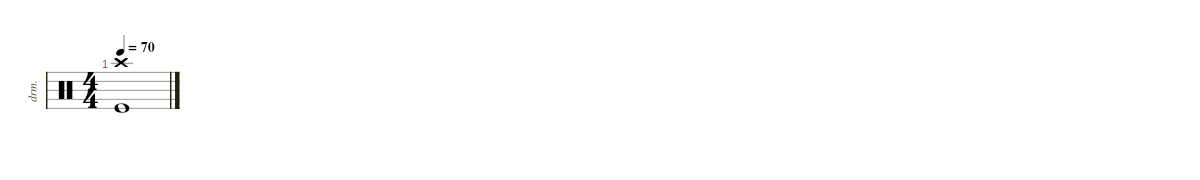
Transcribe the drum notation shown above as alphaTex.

\defaultSystemsLayout 4
\hideDynamics
\bracketExtendMode nobrackets
\otherSystemsTrackNameOrientation horizontal
\track ("Drums" "drm.") {defaultSystemsLayout 4 multiBarRest instrument percussion}
\staff {score}
\articulation defaults
\ts (4 4)
\tempo 70
\clef neutral
\ks c
("Kick (hit)" "Crash high (hit)").1{dy f}
